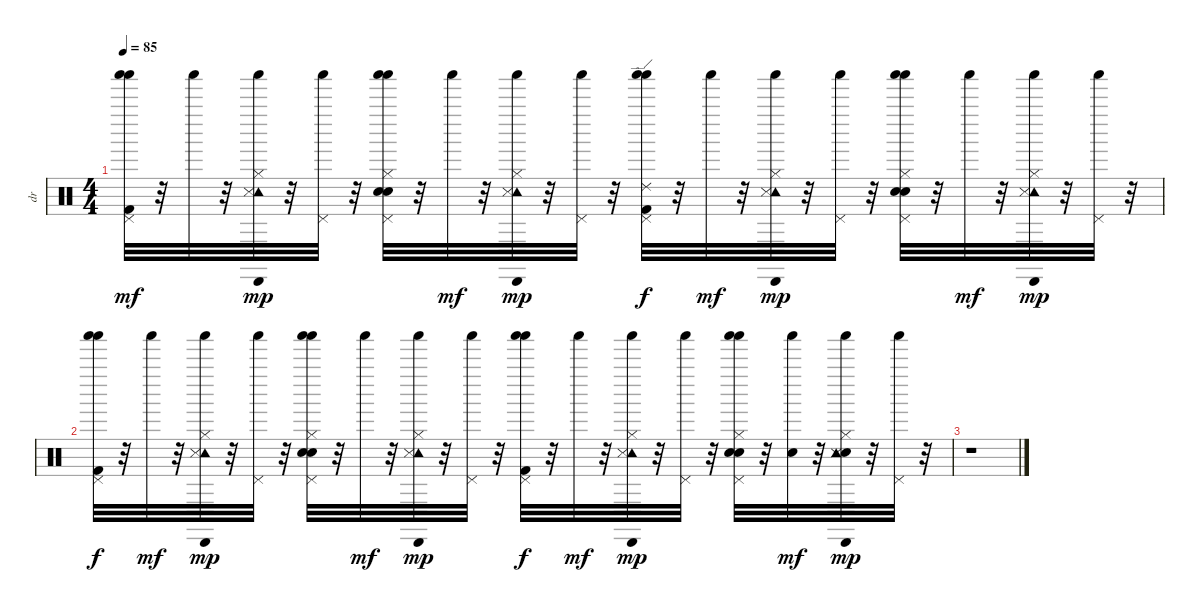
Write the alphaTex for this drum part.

\track ("dr" "dr") {instrument percussion}
\staff {score}
\articulation defaults
\ts (4 4)
\tempo 85
\clef neutral
\ks c
("Pedal Hi-Hat (hit)" "Shaker (hit)" "Shaker (hit)" "Kick (hit) 2").32{dy mf volume 1} r.32 "Shaker (hit)".32{volume 1} r.32 ("Hi-Hat (closed)" "Cabasa (hit)" "Tambourine (hit)" "Shaker (hit)" "Snare (side stick) 3").32{dy mp volume 1} r.32 ("Pedal Hi-Hat (hit)" "Shaker (hit)").32{volume 1} r.32 ("Electric Snare (hit)" "Pedal Hi-Hat (hit)" "Shaker (hit)" "Shaker (hit)" "Hi-Hat (closed)" "Snare (hit) 2").32{volume 1} r.32 "Shaker (hit)".32{dy mf volume 1} r.32 ("Hi-Hat (closed)" "Tambourine (hit)" "Cabasa (hit)" "Shaker (hit)" "Snare (side stick) 3").32{dy mp volume 1} r.32 ("Pedal Hi-Hat (hit)" "Shaker (hit)").32{volume 1} r.32 ("Pedal Hi-Hat (hit)" "Shaker (hit)" "Shaker (hit)" "Kick (hit) 2" "Ride (edge) 2").32{dy f volume 1} r.32 "Shaker (hit)".32{dy mf volume 1} r.32 ("Hi-Hat (closed)" "Cabasa (hit)" "Tambourine (hit)" "Shaker (hit)" "Snare (side stick) 3").32{dy mp volume 1} r.32 ("Pedal Hi-Hat (hit)" "Shaker (hit)").32{volume 1} r.32 ("Electric Snare (hit)" "Pedal Hi-Hat (hit)" "Shaker (hit)" "Shaker (hit)" "Hi-Hat (closed)" "Snare (hit) 2").32{volume 1} r.32 "Shaker (hit)".32{dy mf volume 1} r.32 ("Hi-Hat (closed)" "Cabasa (hit)" "Tambourine (hit)" "Shaker (hit)" "Snare (side stick) 3").32{dy mp volume 1} r.32 ("Pedal Hi-Hat (hit)" "Shaker (hit)").32{volume 1} r.32 |
("Pedal Hi-Hat (hit)" "Shaker (hit)" "Shaker (hit)" "Kick (hit) 2").32{dy f volume 1} r.32 "Shaker (hit)".32{dy mf volume 1} r.32 ("Hi-Hat (closed)" "Cabasa (hit)" "Tambourine (hit)" "Shaker (hit)" "Snare (side stick) 3").32{dy mp volume 0} r.32 ("Pedal Hi-Hat (hit)" "Shaker (hit)").32{volume 0} r.32 ("Pedal Hi-Hat (hit)" "Shaker (hit)" "Shaker (hit)" "Hi-Hat (closed)" "Electric Snare (hit)" "Snare (hit) 2").32{volume 0} r.32 "Shaker (hit)".32{dy mf volume 0} r.32 ("Hi-Hat (closed)" "Cabasa (hit)" "Tambourine (hit)" "Shaker (hit)" "Snare (side stick) 3").32{dy mp volume 0} r.32 ("Pedal Hi-Hat (hit)" "Shaker (hit)").32{volume 0} r.32 ("Pedal Hi-Hat (hit)" "Shaker (hit)" "Shaker (hit)" "Kick (hit) 2").32{dy f volume 0} r.32 "Shaker (hit)".32{dy mf volume 0} r.32 ("Hi-Hat (closed)" "Cabasa (hit)" "Tambourine (hit)" "Shaker (hit)" "Snare (side stick) 3").32{dy mp volume 0} r.32 ("Pedal Hi-Hat (hit)" "Shaker (hit)").32{volume 0} r.32 ("Electric Snare (hit)" "Pedal Hi-Hat (hit)" "Shaker (hit)" "Shaker (hit)" "Hi-Hat (closed)" "Snare (hit) 2").32{volume 0} r.32 ("Shaker (hit)" "Snare (hit) 2").32{dy mf volume 0} r.32 ("Snare (hit) 2" "Hi-Hat (closed)" "Cabasa (hit)" "Tambourine (hit)" "Shaker (hit)" "Snare (side stick) 3").32{dy mp volume 0} r.32 ("Pedal Hi-Hat (hit)" "Shaker (hit)").32{volume 0} r.32 |
r.1
